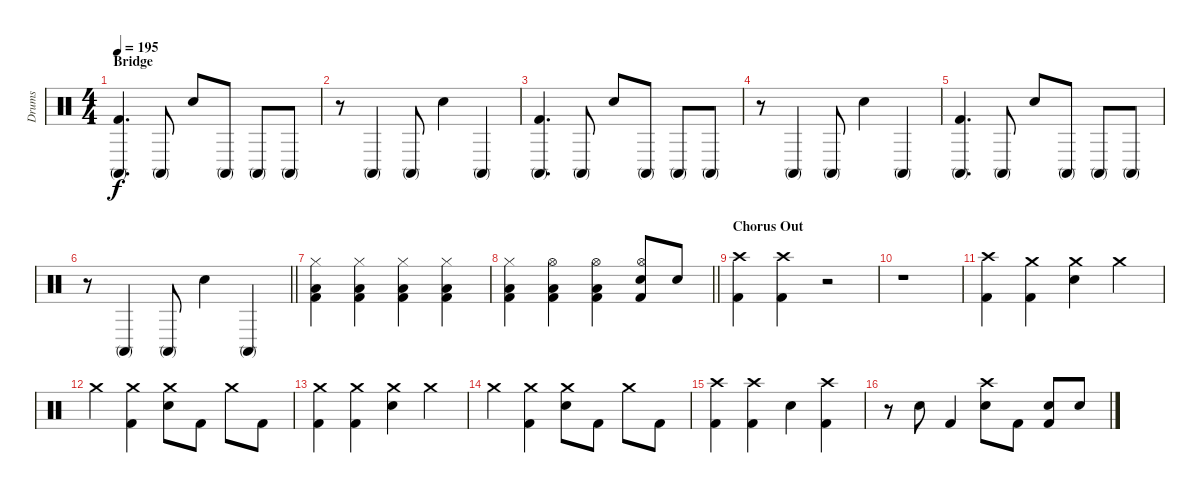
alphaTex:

\track ("Drums" "Drums") {instrument percussion}
\staff {score}
\articulation defaults
\ts (4 4)
\section ("" "Bridge")
\tempo 195
\clef neutral
\ks c
("Kick (hit) 2" "Conga high (mute)").4{d dy f} "Conga high (mute)".8 "Hand Clap (hit)".8 "Conga high (mute)".8 "Conga high (mute)".8 "Conga high (mute)".8 |
r.8 "Conga high (mute)".4 "Conga high (mute)".8 "Hand Clap (hit)".4 "Conga high (mute)".4 |
("Kick (hit) 2" "Conga high (mute)").4{d} "Conga high (mute)".8 "Hand Clap (hit)".8 "Conga high (mute)".8 "Conga high (mute)".8 "Conga high (mute)".8 |
r.8 "Conga high (mute)".4 "Conga high (mute)".8 "Hand Clap (hit)".4 "Conga high (mute)".4 |
("Kick (hit) 2" "Conga high (mute)").4{d} "Conga high (mute)".8 "Hand Clap (hit)".8 "Conga high (mute)".8 "Conga high (mute)".8 "Conga high (mute)".8 |
\barLineRight lightlight
r.8 "Conga high (mute)".4 "Conga high (mute)".8 "Hand Clap (hit)".4 "Conga high (mute)".4 |
("Low Floor Tom (hit)" "Kick (hit) 2" "Hi-Hat (closed)").4 ("Low Floor Tom (hit)" "Kick (hit) 2" "Hi-Hat (closed)").4 ("Low Floor Tom (hit)" "Kick (hit) 2" "Hi-Hat (closed)").4 ("Low Floor Tom (hit)" "Kick (hit) 2" "Hi-Hat (closed)").4 |
\barLineRight lightlight
("Low Floor Tom (hit)" "Kick (hit) 2" "Hi-Hat (closed)").4 ("Low Floor Tom (hit)" "Kick (hit) 2" "Hi-Hat (open)").4 ("Low Floor Tom (hit)" "Kick (hit) 2" "Hi-Hat (open)").4 ("Snare (hit) 2" "Kick (hit) 2" "Hi-Hat (open)").8 "Snare (hit) 2".8 |
\section ("" "Chorus Out")
("Crash high (hit)" "Kick (hit) 2").4 ("Crash high (hit)" "Kick (hit) 2").4 r.2 |
r.1 |
("Crash high (hit)" "Kick (hit) 2").4 ("Crash medium (hit)" "Kick (hit) 2").4 ("Crash medium (hit)" "Snare (hit) 2").4 "Crash medium (hit)".4 |
"Crash medium (hit)".4 ("Crash medium (hit)" "Kick (hit) 2").4 ("Crash medium (hit)" "Snare (hit) 2").8 "Kick (hit) 2".8 "Crash medium (hit)".8 "Kick (hit) 2".8 |
("Crash medium (hit)" "Kick (hit) 2").4 ("Crash medium (hit)" "Kick (hit) 2").4 ("Crash medium (hit)" "Snare (hit) 2").4 "Crash medium (hit)".4 |
"Crash medium (hit)".4 ("Crash medium (hit)" "Kick (hit) 2").4 ("Crash medium (hit)" "Snare (hit) 2").8 "Kick (hit) 2".8 "Crash medium (hit)".8 "Kick (hit) 2".8 |
("Crash high (hit)" "Kick (hit) 2").4 ("Crash high (hit)" "Kick (hit) 2").4 "Snare (hit) 2".4 ("Crash high (hit)" "Kick (hit) 2").4 |
r.8 "Snare (hit) 2".8 "Kick (hit) 2".4 ("Crash high (hit)" "Snare (hit) 2").8 "Kick (hit) 2".8 ("Snare (hit) 2" "Kick (hit) 2").8 "Snare (hit) 2".8
